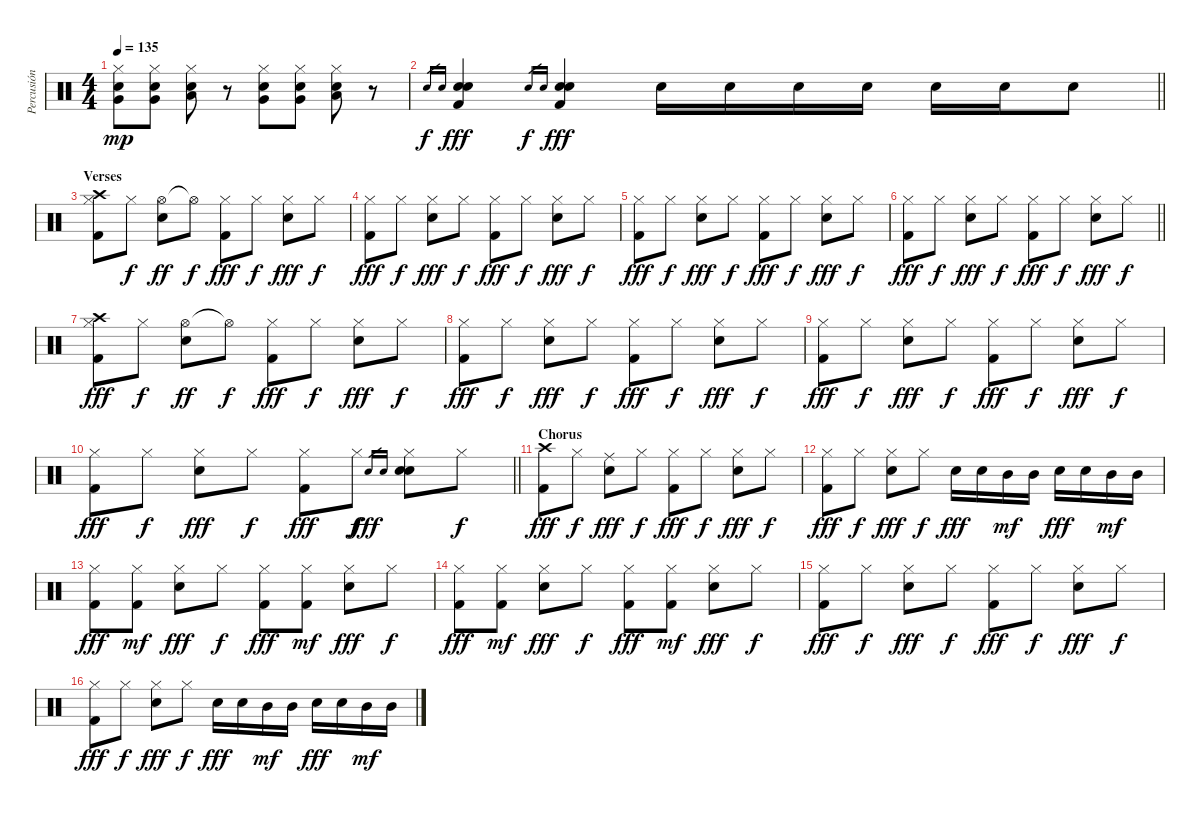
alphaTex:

\track ("Percusión" "Percusión") {instrument percussion}
\staff {score}
\articulation defaults
\ts (4 4)
\tempo 135
\clef neutral
\ks c
("Hi-Hat (closed)" "Electric Snare (hit)" "Very Low Tom (hit)").8{dy mp} ("Hi-Hat (closed)" "Electric Snare (hit)" "Very Low Tom (hit)").8 ("Hi-Hat (closed)" "Electric Snare (hit)" "Low Tom (hit)").8 r.8 ("Hi-Hat (closed)" "Electric Snare (hit)" "Very Low Tom (hit)").8 ("Hi-Hat (closed)" "Electric Snare (hit)" "Very Low Tom (hit)").8 ("Hi-Hat (closed)" "Electric Snare (hit)" "Low Tom (hit)").8 r.8 |
\barLineRight lightlight "Electric Snare (hit)".16{gr dy f} "Electric Snare (hit)".16{gr}
("Kick (hit) 2" "Electric Snare (hit)" "Electric Snare (hit)").4{dy fff} "Electric Snare (hit)".16{gr dy f} "Electric Snare (hit)".16{gr} ("Kick (hit) 2" "Electric Snare (hit)" "Electric Snare (hit)").4{dy fff} "Electric Snare (hit)".16 "Electric Snare (hit)".16 "Electric Snare (hit)".16 "Electric Snare (hit)".16 "Electric Snare (hit)".16 "Electric Snare (hit)".16 "Electric Snare (hit)".8 |
\section ("" "Verses")
("Crash high (hit)" "Hi-Hat (closed)" "Kick (hit) 2").8 "Hi-Hat (closed)".8{dy f} ("Hi-Hat (open)" "Electric Snare (hit)").8{dy ff} "Hi-Hat (open)"{t}.8{dy f} ("Hi-Hat (closed)" "Kick (hit) 2").8{dy fff} "Hi-Hat (closed)".8{dy f} ("Hi-Hat (closed)" "Electric Snare (hit)").8{dy fff} "Hi-Hat (closed)".8{dy f} |
("Hi-Hat (closed)" "Kick (hit) 2").8{dy fff} "Hi-Hat (closed)".8{dy f} ("Hi-Hat (closed)" "Electric Snare (hit)").8{dy fff} "Hi-Hat (closed)".8{dy f} ("Hi-Hat (closed)" "Kick (hit) 2").8{dy fff} "Hi-Hat (closed)".8{dy f} ("Hi-Hat (closed)" "Electric Snare (hit)").8{dy fff} "Hi-Hat (closed)".8{dy f} |
("Hi-Hat (closed)" "Kick (hit) 2").8{dy fff} "Hi-Hat (closed)".8{dy f} ("Hi-Hat (closed)" "Electric Snare (hit)").8{dy fff} "Hi-Hat (closed)".8{dy f} ("Hi-Hat (closed)" "Kick (hit) 2").8{dy fff} "Hi-Hat (closed)".8{dy f} ("Hi-Hat (closed)" "Electric Snare (hit)").8{dy fff} "Hi-Hat (closed)".8{dy f} |
\barLineRight lightlight
("Hi-Hat (closed)" "Kick (hit) 2").8{dy fff} "Hi-Hat (closed)".8{dy f} ("Hi-Hat (closed)" "Electric Snare (hit)").8{dy fff} "Hi-Hat (closed)".8{dy f} ("Hi-Hat (closed)" "Kick (hit) 2").8{dy fff} "Hi-Hat (closed)".8{dy f} ("Hi-Hat (closed)" "Electric Snare (hit)").8{dy fff} "Hi-Hat (closed)".8{dy f} |
("Crash high (hit)" "Hi-Hat (closed)" "Kick (hit) 2").8{dy fff} "Hi-Hat (closed)".8{dy f} ("Hi-Hat (open)" "Electric Snare (hit)").8{dy ff} "Hi-Hat (open)"{t}.8{dy f} ("Hi-Hat (closed)" "Kick (hit) 2").8{dy fff} "Hi-Hat (closed)".8{dy f} ("Hi-Hat (closed)" "Electric Snare (hit)").8{dy fff} "Hi-Hat (closed)".8{dy f} |
("Hi-Hat (closed)" "Kick (hit) 2").8{dy fff} "Hi-Hat (closed)".8{dy f} ("Hi-Hat (closed)" "Electric Snare (hit)").8{dy fff} "Hi-Hat (closed)".8{dy f} ("Hi-Hat (closed)" "Kick (hit) 2").8{dy fff} "Hi-Hat (closed)".8{dy f} ("Hi-Hat (closed)" "Electric Snare (hit)").8{dy fff} "Hi-Hat (closed)".8{dy f} |
("Hi-Hat (closed)" "Kick (hit) 2").8{dy fff} "Hi-Hat (closed)".8{dy f} ("Hi-Hat (closed)" "Electric Snare (hit)").8{dy fff} "Hi-Hat (closed)".8{dy f} ("Hi-Hat (closed)" "Kick (hit) 2").8{dy fff} "Hi-Hat (closed)".8{dy f} ("Hi-Hat (closed)" "Electric Snare (hit)").8{dy fff} "Hi-Hat (closed)".8{dy f} |
\barLineRight lightlight
("Hi-Hat (closed)" "Kick (hit) 2").8{dy fff} "Hi-Hat (closed)".8{dy f} ("Hi-Hat (closed)" "Electric Snare (hit)").8{dy fff} "Hi-Hat (closed)".8{dy f} ("Hi-Hat (closed)" "Kick (hit) 2").8{dy fff} "Hi-Hat (closed)".8{dy f} "Electric Snare (hit)".16{gr dy fff} "Electric Snare (hit)".16{gr} ("Hi-Hat (closed)" "Electric Snare (hit)" "Electric Snare (hit)").8 "Hi-Hat (closed)".8{dy f} |
\section ("" "Chorus")
("Crash high (hit)" "Kick (hit) 2").8{dy fff} "Hi-Hat (closed)".8{dy f} ("Ride (middle)" "Electric Snare (hit)").8{dy fff} "Hi-Hat (closed)".8{dy f} ("Hi-Hat (closed)" "Kick (hit) 2").8{dy fff} "Hi-Hat (closed)".8{dy f} ("Hi-Hat (closed)" "Electric Snare (hit)").8{dy fff} "Hi-Hat (closed)".8{dy f} |
("Hi-Hat (closed)" "Kick (hit) 2").8{dy fff} "Hi-Hat (closed)".8{dy f} ("Hi-Hat (closed)" "Electric Snare (hit)").8{dy fff} "Hi-Hat (closed)".8{dy f} "Electric Snare (hit)".16{dy fff} "Electric Snare (hit)".16 "Mid Tom (hit)".16{dy mf} "Mid Tom (hit)".16 "Electric Snare (hit)".16{dy fff} "Electric Snare (hit)".16 "Mid Tom (hit)".16{dy mf} "Mid Tom (hit)".16 |
("Hi-Hat (closed)" "Kick (hit) 2").8{dy fff} ("Hi-Hat (closed)" "Kick (hit) 2").8{dy mf} ("Hi-Hat (closed)" "Electric Snare (hit)").8{dy fff} "Hi-Hat (closed)".8{dy f} ("Hi-Hat (closed)" "Kick (hit) 2").8{dy fff} ("Hi-Hat (closed)" "Kick (hit) 2").8{dy mf} ("Hi-Hat (closed)" "Electric Snare (hit)").8{dy fff} "Hi-Hat (closed)".8{dy f} |
("Hi-Hat (closed)" "Kick (hit) 2").8{dy fff} ("Hi-Hat (closed)" "Kick (hit) 2").8{dy mf} ("Hi-Hat (closed)" "Electric Snare (hit)").8{dy fff} "Hi-Hat (closed)".8{dy f} ("Hi-Hat (closed)" "Kick (hit) 2").8{dy fff} ("Hi-Hat (closed)" "Kick (hit) 2").8{dy mf} ("Hi-Hat (closed)" "Electric Snare (hit)").8{dy fff} "Hi-Hat (closed)".8{dy f} |
("Hi-Hat (closed)" "Kick (hit) 2").8{dy fff} "Hi-Hat (closed)".8{dy f} ("Hi-Hat (closed)" "Electric Snare (hit)").8{dy fff} "Hi-Hat (closed)".8{dy f} ("Hi-Hat (closed)" "Kick (hit) 2").8{dy fff} "Hi-Hat (closed)".8{dy f} ("Hi-Hat (closed)" "Electric Snare (hit)").8{dy fff} "Hi-Hat (closed)".8{dy f} |
("Hi-Hat (closed)" "Kick (hit) 2").8{dy fff} "Hi-Hat (closed)".8{dy f} ("Hi-Hat (closed)" "Electric Snare (hit)").8{dy fff} "Hi-Hat (closed)".8{dy f} "Electric Snare (hit)".16{dy fff} "Electric Snare (hit)".16 "Mid Tom (hit)".16{dy mf} "Mid Tom (hit)".16 "Electric Snare (hit)".16{dy fff} "Electric Snare (hit)".16 "Mid Tom (hit)".16{dy mf} "Mid Tom (hit)".16
